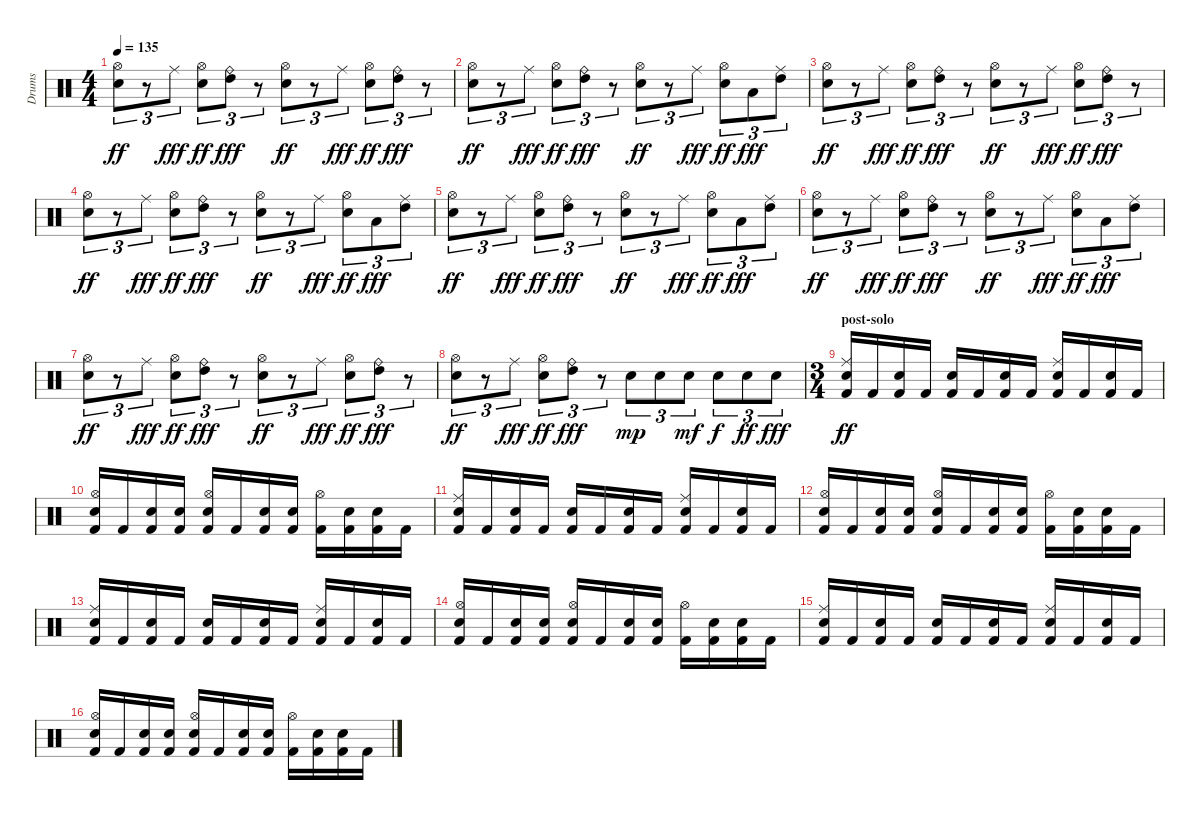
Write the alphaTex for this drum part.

\track ("Drums" "Drums") {instrument percussion}
\staff {score}
\articulation defaults
\ts (4 4)
\tempo 135
\clef neutral
\ks c
("Electric Snare (hit)" "Hi-Hat (open)").8{tu (3 2) dy ff} r.8{tu (3 2)} "Ride (middle)".8{tu (3 2) dy fff} ("Electric Snare (hit)" "Hi-Hat (open)").8{tu (3 2) dy ff} ("Ride (bell)" "High Tom (hit)").8{tu (3 2) dy fff} r.8{tu (3 2)} ("Electric Snare (hit)" "Hi-Hat (open)").8{tu (3 2) dy ff} r.8{tu (3 2)} "Ride (middle)".8{tu (3 2) dy fff} ("Electric Snare (hit)" "Hi-Hat (open)").8{tu (3 2) dy ff} ("Ride (bell)" "High Tom (hit)").8{tu (3 2) dy fff} r.8{tu (3 2)} |
("Electric Snare (hit)" "Hi-Hat (open)").8{tu (3 2) dy ff} r.8{tu (3 2)} "Ride (middle)".8{tu (3 2) dy fff} ("Electric Snare (hit)" "Hi-Hat (open)").8{tu (3 2) dy ff} ("Ride (bell)" "High Tom (hit)").8{tu (3 2) dy fff} r.8{tu (3 2)} ("Electric Snare (hit)" "Hi-Hat (open)").8{tu (3 2) dy ff} r.8{tu (3 2)} "Ride (middle)".8{tu (3 2) dy fff} ("Electric Snare (hit)" "Hi-Hat (open)").8{tu (3 2) dy ff} "Low Tom (hit)".8{tu (3 2) dy fff} ("High Tom (hit)" "Ride (middle)").8{tu (3 2)} |
("Electric Snare (hit)" "Hi-Hat (open)").8{tu (3 2) dy ff} r.8{tu (3 2)} "Ride (middle)".8{tu (3 2) dy fff} ("Electric Snare (hit)" "Hi-Hat (open)").8{tu (3 2) dy ff} ("Ride (bell)" "High Tom (hit)").8{tu (3 2) dy fff} r.8{tu (3 2)} ("Electric Snare (hit)" "Hi-Hat (open)").8{tu (3 2) dy ff} r.8{tu (3 2)} "Ride (middle)".8{tu (3 2) dy fff} ("Electric Snare (hit)" "Hi-Hat (open)").8{tu (3 2) dy ff} ("Ride (bell)" "High Tom (hit)").8{tu (3 2) dy fff} r.8{tu (3 2)} |
("Electric Snare (hit)" "Hi-Hat (open)").8{tu (3 2) dy ff} r.8{tu (3 2)} "Ride (middle)".8{tu (3 2) dy fff} ("Electric Snare (hit)" "Hi-Hat (open)").8{tu (3 2) dy ff} ("Ride (bell)" "High Tom (hit)").8{tu (3 2) dy fff} r.8{tu (3 2)} ("Electric Snare (hit)" "Hi-Hat (open)").8{tu (3 2) dy ff} r.8{tu (3 2)} "Ride (middle)".8{tu (3 2) dy fff} ("Electric Snare (hit)" "Hi-Hat (open)").8{tu (3 2) dy ff} "Low Tom (hit)".8{tu (3 2) dy fff} ("High Tom (hit)" "Ride (middle)").8{tu (3 2)} |
("Electric Snare (hit)" "Hi-Hat (open)").8{tu (3 2) dy ff} r.8{tu (3 2)} "Ride (middle)".8{tu (3 2) dy fff} ("Electric Snare (hit)" "Hi-Hat (open)").8{tu (3 2) dy ff} ("Ride (bell)" "High Tom (hit)").8{tu (3 2) dy fff} r.8{tu (3 2)} ("Electric Snare (hit)" "Hi-Hat (open)").8{tu (3 2) dy ff} r.8{tu (3 2)} "Ride (middle)".8{tu (3 2) dy fff} ("Electric Snare (hit)" "Hi-Hat (open)").8{tu (3 2) dy ff} "Low Tom (hit)".8{tu (3 2) dy fff} ("High Tom (hit)" "Ride (middle)").8{tu (3 2)} |
("Electric Snare (hit)" "Hi-Hat (open)").8{tu (3 2) dy ff} r.8{tu (3 2)} "Ride (middle)".8{tu (3 2) dy fff} ("Electric Snare (hit)" "Hi-Hat (open)").8{tu (3 2) dy ff} ("Ride (bell)" "High Tom (hit)").8{tu (3 2) dy fff} r.8{tu (3 2)} ("Electric Snare (hit)" "Hi-Hat (open)").8{tu (3 2) dy ff} r.8{tu (3 2)} "Ride (middle)".8{tu (3 2) dy fff} ("Electric Snare (hit)" "Hi-Hat (open)").8{tu (3 2) dy ff} "Low Tom (hit)".8{tu (3 2) dy fff} ("High Tom (hit)" "Ride (middle)").8{tu (3 2)} |
("Electric Snare (hit)" "Hi-Hat (open)").8{tu (3 2) dy ff} r.8{tu (3 2)} "Ride (middle)".8{tu (3 2) dy fff} ("Electric Snare (hit)" "Hi-Hat (open)").8{tu (3 2) dy ff} ("Ride (bell)" "High Tom (hit)").8{tu (3 2) dy fff} r.8{tu (3 2)} ("Electric Snare (hit)" "Hi-Hat (open)").8{tu (3 2) dy ff} r.8{tu (3 2)} "Ride (middle)".8{tu (3 2) dy fff} ("Electric Snare (hit)" "Hi-Hat (open)").8{tu (3 2) dy ff} ("Ride (bell)" "High Tom (hit)").8{tu (3 2) dy fff} r.8{tu (3 2)} |
("Electric Snare (hit)" "Hi-Hat (open)").8{tu (3 2) dy ff} r.8{tu (3 2)} "Ride (middle)".8{tu (3 2) dy fff} ("Electric Snare (hit)" "Hi-Hat (open)").8{tu (3 2) dy ff} ("Ride (bell)" "High Tom (hit)").8{tu (3 2) dy fff} r.8{tu (3 2)} "Electric Snare (hit)".8{tu (3 2) dy mp} "Electric Snare (hit)".8{tu (3 2)} "Electric Snare (hit)".8{tu (3 2) dy mf} "Electric Snare (hit)".8{tu (3 2) dy f} "Electric Snare (hit)".8{tu (3 2) dy ff} "Electric Snare (hit)".8{tu (3 2) dy fff} |
\ts (3 4)
\section ("" "post-solo")
("Electric Snare (hit)" "Ride (middle)" "Kick (hit) 2").16{dy ff} "Kick (hit) 2".16 ("Electric Snare (hit)" "Kick (hit) 2").16 "Kick (hit) 2".16 ("Electric Snare (hit)" "Kick (hit) 2").16 "Kick (hit) 2".16 ("Electric Snare (hit)" "Kick (hit) 2").16 "Kick (hit) 2".16 ("Electric Snare (hit)" "Ride (middle)" "Kick (hit) 2").16 "Kick (hit) 2".16 ("Electric Snare (hit)" "Kick (hit) 2").16 "Kick (hit) 2".16 |
("Hi-Hat (open)" "Electric Snare (hit)" "Kick (hit) 2").16 "Kick (hit) 2".16 ("Electric Snare (hit)" "Kick (hit) 2").16 ("Electric Snare (hit)" "Kick (hit) 2").16 ("Hi-Hat (open)" "Electric Snare (hit)" "Kick (hit) 2").16 "Kick (hit) 2".16 ("Electric Snare (hit)" "Kick (hit) 2").16 ("Electric Snare (hit)" "Kick (hit) 2").16 ("Hi-Hat (open)" "Kick (hit) 2").16 ("Electric Snare (hit)" "Kick (hit) 2").16 ("Electric Snare (hit)" "Kick (hit) 2").16 "Kick (hit) 2".16 |
("Electric Snare (hit)" "Ride (middle)" "Kick (hit) 2").16 "Kick (hit) 2".16 ("Electric Snare (hit)" "Kick (hit) 2").16 "Kick (hit) 2".16 ("Electric Snare (hit)" "Kick (hit) 2").16 "Kick (hit) 2".16 ("Electric Snare (hit)" "Kick (hit) 2").16 "Kick (hit) 2".16 ("Electric Snare (hit)" "Ride (middle)" "Kick (hit) 2").16 "Kick (hit) 2".16 ("Electric Snare (hit)" "Kick (hit) 2").16 "Kick (hit) 2".16 |
("Hi-Hat (open)" "Electric Snare (hit)" "Kick (hit) 2").16 "Kick (hit) 2".16 ("Electric Snare (hit)" "Kick (hit) 2").16 ("Electric Snare (hit)" "Kick (hit) 2").16 ("Hi-Hat (open)" "Electric Snare (hit)" "Kick (hit) 2").16 "Kick (hit) 2".16 ("Electric Snare (hit)" "Kick (hit) 2").16 ("Electric Snare (hit)" "Kick (hit) 2").16 ("Hi-Hat (open)" "Kick (hit) 2").16 ("Electric Snare (hit)" "Kick (hit) 2").16 ("Electric Snare (hit)" "Kick (hit) 2").16 "Kick (hit) 2".16 |
("Electric Snare (hit)" "Ride (middle)" "Kick (hit) 2").16 "Kick (hit) 2".16 ("Electric Snare (hit)" "Kick (hit) 2").16 "Kick (hit) 2".16 ("Electric Snare (hit)" "Kick (hit) 2").16 "Kick (hit) 2".16 ("Electric Snare (hit)" "Kick (hit) 2").16 "Kick (hit) 2".16 ("Electric Snare (hit)" "Ride (middle)" "Kick (hit) 2").16 "Kick (hit) 2".16 ("Electric Snare (hit)" "Kick (hit) 2").16 "Kick (hit) 2".16 |
("Hi-Hat (open)" "Electric Snare (hit)" "Kick (hit) 2").16 "Kick (hit) 2".16 ("Electric Snare (hit)" "Kick (hit) 2").16 ("Electric Snare (hit)" "Kick (hit) 2").16 ("Hi-Hat (open)" "Electric Snare (hit)" "Kick (hit) 2").16 "Kick (hit) 2".16 ("Electric Snare (hit)" "Kick (hit) 2").16 ("Electric Snare (hit)" "Kick (hit) 2").16 ("Hi-Hat (open)" "Kick (hit) 2").16 ("Electric Snare (hit)" "Kick (hit) 2").16 ("Electric Snare (hit)" "Kick (hit) 2").16 "Kick (hit) 2".16 |
("Electric Snare (hit)" "Ride (middle)" "Kick (hit) 2").16 "Kick (hit) 2".16 ("Electric Snare (hit)" "Kick (hit) 2").16 "Kick (hit) 2".16 ("Electric Snare (hit)" "Kick (hit) 2").16 "Kick (hit) 2".16 ("Electric Snare (hit)" "Kick (hit) 2").16 "Kick (hit) 2".16 ("Electric Snare (hit)" "Ride (middle)" "Kick (hit) 2").16 "Kick (hit) 2".16 ("Electric Snare (hit)" "Kick (hit) 2").16 "Kick (hit) 2".16 |
("Hi-Hat (open)" "Electric Snare (hit)" "Kick (hit) 2").16 "Kick (hit) 2".16 ("Electric Snare (hit)" "Kick (hit) 2").16 ("Electric Snare (hit)" "Kick (hit) 2").16 ("Hi-Hat (open)" "Electric Snare (hit)" "Kick (hit) 2").16 "Kick (hit) 2".16 ("Electric Snare (hit)" "Kick (hit) 2").16 ("Electric Snare (hit)" "Kick (hit) 2").16 ("Hi-Hat (open)" "Kick (hit) 2").16 ("Electric Snare (hit)" "Kick (hit) 2").16 ("Electric Snare (hit)" "Kick (hit) 2").16 "Kick (hit) 2".16
